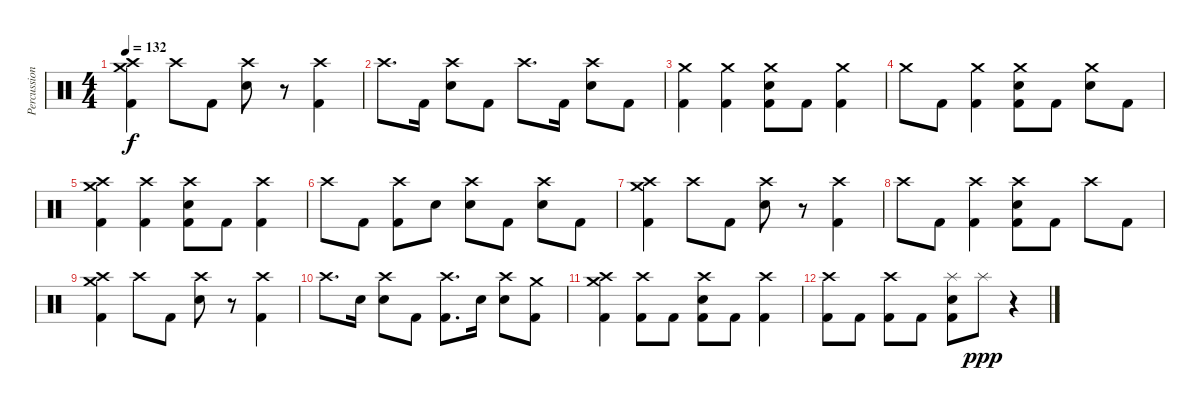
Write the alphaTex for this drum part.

\track ("Percussion" "Percussion") {instrument percussion}
\staff {score}
\articulation defaults
\ts (4 4)
\tempo 132
\clef neutral
\ks c
("Crash medium (hit)" "Crash high (hit)" "Kick (hit) 2").4{dy f} "Crash high (hit)".8 "Kick (hit) 2".8 ("Crash high (hit)" "Electric Snare (hit)").8 r.8 ("Crash high (hit)" "Kick (hit) 2").4 |
"Crash high (hit)".8{d} "Kick (hit) 2".16 ("Crash high (hit)" "Electric Snare (hit)").8 "Kick (hit) 2".8 "Crash high (hit)".8{d} "Kick (hit) 2".16 ("Crash high (hit)" "Electric Snare (hit)").8 "Kick (hit) 2".8 |
("Crash medium (hit)" "Kick (hit) 2").4 ("Crash medium (hit)" "Kick (hit) 2").4 ("Crash medium (hit)" "Electric Snare (hit)" "Kick (hit) 2").8 "Kick (hit) 2".8 ("Crash medium (hit)" "Kick (hit) 2").4 |
"Crash medium (hit)".8 "Kick (hit) 2".8 ("Crash medium (hit)" "Kick (hit) 2").4 ("Crash medium (hit)" "Electric Snare (hit)" "Kick (hit) 2").8 "Kick (hit) 2".8 ("Crash medium (hit)" "Electric Snare (hit)").8 "Kick (hit) 2".8 |
("Crash medium (hit)" "Crash high (hit)" "Kick (hit) 2").4 ("Crash high (hit)" "Kick (hit) 2").4 ("Crash high (hit)" "Electric Snare (hit)" "Kick (hit) 2").8 "Kick (hit) 2".8 ("Crash high (hit)" "Kick (hit) 2").4 |
"Crash high (hit)".8 "Kick (hit) 2".8 ("Crash high (hit)" "Kick (hit) 2").8 "Electric Snare (hit)".8 ("Crash high (hit)" "Electric Snare (hit)").8 "Kick (hit) 2".8 ("Crash high (hit)" "Electric Snare (hit)").8 "Kick (hit) 2".8 |
("Crash medium (hit)" "Crash high (hit)" "Kick (hit) 2").4 "Crash high (hit)".8 "Kick (hit) 2".8 ("Crash high (hit)" "Electric Snare (hit)").8 r.8 ("Crash high (hit)" "Kick (hit) 2").4 |
"Crash high (hit)".8 "Kick (hit) 2".8 ("Crash high (hit)" "Kick (hit) 2").4 ("Crash high (hit)" "Electric Snare (hit)" "Kick (hit) 2").8 "Kick (hit) 2".8 "Crash high (hit)".8 "Kick (hit) 2".8 |
("Crash medium (hit)" "Crash high (hit)" "Kick (hit) 2").4 "Crash high (hit)".8 "Kick (hit) 2".8 ("Crash high (hit)" "Electric Snare (hit)").8 r.8 ("Crash high (hit)" "Kick (hit) 2").4 |
"Crash high (hit)".8{d} "Electric Snare (hit)".16 ("Crash high (hit)" "Electric Snare (hit)").8 "Kick (hit) 2".8 ("Crash high (hit)" "Kick (hit) 2").8{d} "Electric Snare (hit)".16 ("Crash high (hit)" "Electric Snare (hit)").8 ("Crash medium (hit)" "Kick (hit) 2").8 |
("Crash medium (hit)" "Crash high (hit)" "Kick (hit) 2").4 ("Crash high (hit)" "Kick (hit) 2").8 "Kick (hit) 2".8 ("Crash high (hit)" "Electric Snare (hit)" "Kick (hit) 2").8 "Kick (hit) 2".8 ("Crash high (hit)" "Kick (hit) 2").4 |
("Crash high (hit)" "Kick (hit) 2").8 "Kick (hit) 2".8 ("Crash high (hit)" "Kick (hit) 2").8 "Kick (hit) 2".8 ("Splash (hit)" "Electric Snare (hit)" "Kick (hit) 2").8 "Splash (hit)".8{dy ppp} r.4
